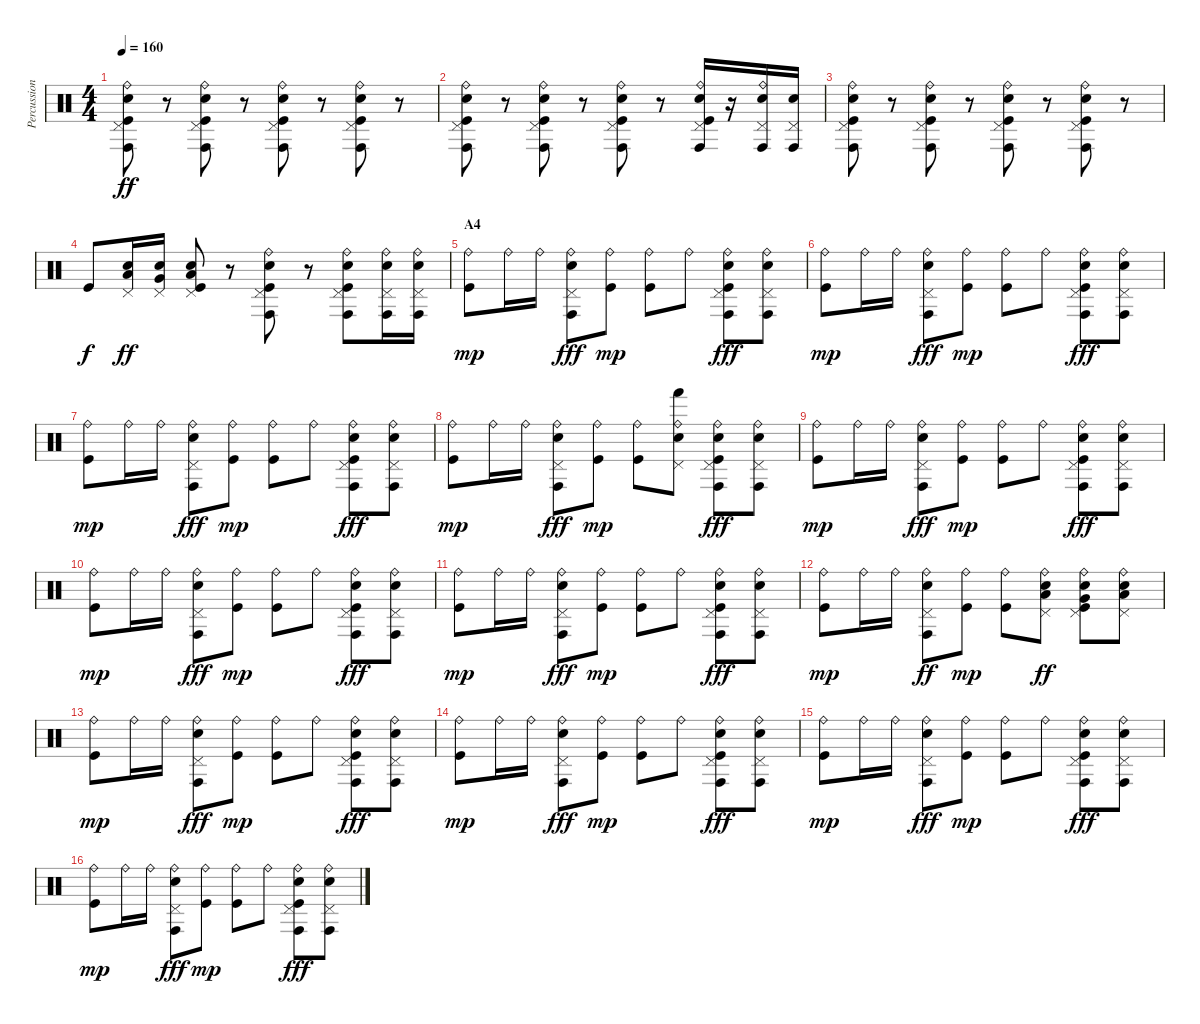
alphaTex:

\track ("Percussion" "Percussion") {instrument percussion}
\staff {score}
\articulation defaults
\ts (4 4)
\tempo 160
\clef neutral
\ks c
("Ride (bell)" "Pedal Hi-Hat (hit)" "Conga high (hit)" "Electric Snare (hit)" "Kick (hit)").8{dy ff} r.8 ("Ride (bell)" "Pedal Hi-Hat (hit)" "Conga high (hit)" "Electric Snare (hit)" "Kick (hit)").8 r.8 ("Ride (bell)" "Pedal Hi-Hat (hit)" "Conga high (hit)" "Electric Snare (hit)" "Kick (hit)").8 r.8 ("Ride (bell)" "Pedal Hi-Hat (hit)" "Conga high (hit)" "Electric Snare (hit)" "Kick (hit)").8 r.8 |
("Ride (bell)" "Pedal Hi-Hat (hit)" "Conga high (hit)" "Electric Snare (hit)" "Kick (hit)").8 r.8 ("Ride (bell)" "Pedal Hi-Hat (hit)" "Conga high (hit)" "Electric Snare (hit)" "Kick (hit)").8 r.8 ("Ride (bell)" "Pedal Hi-Hat (hit)" "Conga high (hit)" "Electric Snare (hit)" "Kick (hit)").8 r.8 ("Ride (bell)" "Pedal Hi-Hat (hit)" "Conga high (hit)" "Electric Snare (hit)" "Kick (hit)").16 r.16 ("Ride (bell)" "Pedal Hi-Hat (hit)" "Conga high (hit)" "Electric Snare (hit)").16 ("Pedal Hi-Hat (hit)" "Conga high (hit)" "Electric Snare (hit)").16 |
("Ride (bell)" "Pedal Hi-Hat (hit)" "Conga high (hit)" "Electric Snare (hit)" "Kick (hit)").8 r.8 ("Ride (bell)" "Pedal Hi-Hat (hit)" "Conga high (hit)" "Electric Snare (hit)" "Kick (hit)").8 r.8 ("Ride (bell)" "Pedal Hi-Hat (hit)" "Conga high (hit)" "Electric Snare (hit)" "Kick (hit)").8 r.8 ("Ride (bell)" "Pedal Hi-Hat (hit)" "Conga high (hit)" "Electric Snare (hit)" "Kick (hit)").8 r.8 |
"Kick (hit)".8{dy f} ("Pedal Hi-Hat (hit)" "Low Tom (hit)" "Electric Snare (hit)").16{dy ff} ("Pedal Hi-Hat (hit)" "Very Low Tom (hit)" "Electric Snare (hit)").16 ("Pedal Hi-Hat (hit)" "Low Floor Tom (hit)" "Electric Snare (hit)" "Kick (hit)").8 r.8 ("Ride (bell)" "Pedal Hi-Hat (hit)" "Conga high (hit)" "Electric Snare (hit)" "Kick (hit)").8 r.8 ("Ride (bell)" "Pedal Hi-Hat (hit)" "Conga high (hit)" "Electric Snare (hit)" "Kick (hit)").8 ("Ride (bell)" "Pedal Hi-Hat (hit)" "Conga high (hit)" "Electric Snare (hit)").16 ("Ride (bell)" "Pedal Hi-Hat (hit)" "Conga high (hit)" "Electric Snare (hit)").16 |
\section ("" "A4")
("Ride (bell)" "Kick (hit)").8{dy mp} "Ride (bell)".16 "Ride (bell)".16 ("Ride (bell)" "Pedal Hi-Hat (hit)" "Conga high (hit)" "Electric Snare (hit)").8{dy fff} ("Ride (bell)" "Kick (hit)").8{dy mp} ("Ride (bell)" "Kick (hit)").8 "Ride (bell)".8 ("Ride (bell)" "Pedal Hi-Hat (hit)" "Conga high (hit)" "Electric Snare (hit)" "Kick (hit)").8{dy fff} ("Ride (bell)" "Pedal Hi-Hat (hit)" "Conga high (hit)" "Electric Snare (hit)").8 |
("Ride (bell)" "Kick (hit)").8{dy mp} "Ride (bell)".16 "Ride (bell)".16 ("Ride (bell)" "Pedal Hi-Hat (hit)" "Conga high (hit)" "Electric Snare (hit)").8{dy fff} ("Ride (bell)" "Kick (hit)").8{dy mp} ("Ride (bell)" "Kick (hit)").8 "Ride (bell)".8 ("Ride (bell)" "Pedal Hi-Hat (hit)" "Conga high (hit)" "Electric Snare (hit)" "Kick (hit)").8{dy fff} ("Ride (bell)" "Pedal Hi-Hat (hit)" "Conga high (hit)" "Electric Snare (hit)").8 |
("Ride (bell)" "Kick (hit)").8{dy mp} "Ride (bell)".16 "Ride (bell)".16 ("Ride (bell)" "Pedal Hi-Hat (hit)" "Conga high (hit)" "Electric Snare (hit)").8{dy fff} ("Ride (bell)" "Kick (hit)").8{dy mp} ("Ride (bell)" "Kick (hit)").8 "Ride (bell)".8 ("Ride (bell)" "Pedal Hi-Hat (hit)" "Conga high (hit)" "Electric Snare (hit)" "Kick (hit)").8{dy fff} ("Ride (bell)" "Pedal Hi-Hat (hit)" "Conga high (hit)" "Electric Snare (hit)").8 |
("Ride (bell)" "Kick (hit)").8{dy mp} "Ride (bell)".16 "Ride (bell)".16 ("Ride (bell)" "Pedal Hi-Hat (hit)" "Conga high (hit)" "Electric Snare (hit)").8{dy fff} ("Ride (bell)" "Kick (hit)").8{dy mp} ("Ride (bell)" "Kick (hit)").8 ("Ride (bell)" "Pedal Hi-Hat (hit)" "Hand (hit)" "Electric Snare (hit)").8 ("Ride (bell)" "Pedal Hi-Hat (hit)" "Conga high (hit)" "Electric Snare (hit)" "Kick (hit)").8{dy fff} ("Ride (bell)" "Pedal Hi-Hat (hit)" "Conga high (hit)" "Electric Snare (hit)").8 |
("Ride (bell)" "Kick (hit)").8{dy mp} "Ride (bell)".16 "Ride (bell)".16 ("Ride (bell)" "Pedal Hi-Hat (hit)" "Conga high (hit)" "Electric Snare (hit)").8{dy fff} ("Ride (bell)" "Kick (hit)").8{dy mp} ("Ride (bell)" "Kick (hit)").8 "Ride (bell)".8 ("Ride (bell)" "Pedal Hi-Hat (hit)" "Conga high (hit)" "Electric Snare (hit)" "Kick (hit)").8{dy fff} ("Ride (bell)" "Pedal Hi-Hat (hit)" "Conga high (hit)" "Electric Snare (hit)").8 |
("Ride (bell)" "Kick (hit)").8{dy mp} "Ride (bell)".16 "Ride (bell)".16 ("Ride (bell)" "Pedal Hi-Hat (hit)" "Conga high (hit)" "Electric Snare (hit)").8{dy fff} ("Ride (bell)" "Kick (hit)").8{dy mp} ("Ride (bell)" "Kick (hit)").8 "Ride (bell)".8 ("Ride (bell)" "Pedal Hi-Hat (hit)" "Conga high (hit)" "Electric Snare (hit)" "Kick (hit)").8{dy fff} ("Ride (bell)" "Pedal Hi-Hat (hit)" "Conga high (hit)" "Electric Snare (hit)").8 |
("Ride (bell)" "Kick (hit)").8{dy mp} "Ride (bell)".16 "Ride (bell)".16 ("Ride (bell)" "Pedal Hi-Hat (hit)" "Conga high (hit)" "Electric Snare (hit)").8{dy fff} ("Ride (bell)" "Kick (hit)").8{dy mp} ("Ride (bell)" "Kick (hit)").8 "Ride (bell)".8 ("Ride (bell)" "Pedal Hi-Hat (hit)" "Conga high (hit)" "Electric Snare (hit)" "Kick (hit)").8{dy fff} ("Ride (bell)" "Pedal Hi-Hat (hit)" "Conga high (hit)" "Electric Snare (hit)").8 |
("Ride (bell)" "Kick (hit)").8{dy mp} "Ride (bell)".16 "Ride (bell)".16 ("Ride (bell)" "Pedal Hi-Hat (hit)" "Conga high (hit)" "Electric Snare (hit)").8{dy ff} ("Ride (bell)" "Kick (hit)").8{dy mp} ("Ride (bell)" "Kick (hit)").8 ("Ride (bell)" "Pedal Hi-Hat (hit)" "Low Tom (hit)" "Electric Snare (hit)").8{dy ff} ("Ride (bell)" "Pedal Hi-Hat (hit)" "Very Low Tom (hit)" "Electric Snare (hit)" "Kick (hit)").8 ("Ride (bell)" "Pedal Hi-Hat (hit)" "Low Floor Tom (hit)" "Electric Snare (hit)").8 |
("Ride (bell)" "Kick (hit)").8{dy mp} "Ride (bell)".16 "Ride (bell)".16 ("Ride (bell)" "Pedal Hi-Hat (hit)" "Conga high (hit)" "Electric Snare (hit)").8{dy fff} ("Ride (bell)" "Kick (hit)").8{dy mp} ("Ride (bell)" "Kick (hit)").8 "Ride (bell)".8 ("Ride (bell)" "Pedal Hi-Hat (hit)" "Conga high (hit)" "Electric Snare (hit)" "Kick (hit)").8{dy fff} ("Ride (bell)" "Pedal Hi-Hat (hit)" "Conga high (hit)" "Electric Snare (hit)").8 |
("Ride (bell)" "Kick (hit)").8{dy mp} "Ride (bell)".16 "Ride (bell)".16 ("Ride (bell)" "Pedal Hi-Hat (hit)" "Conga high (hit)" "Electric Snare (hit)").8{dy fff} ("Ride (bell)" "Kick (hit)").8{dy mp} ("Ride (bell)" "Kick (hit)").8 "Ride (bell)".8 ("Ride (bell)" "Pedal Hi-Hat (hit)" "Conga high (hit)" "Electric Snare (hit)" "Kick (hit)").8{dy fff} ("Ride (bell)" "Pedal Hi-Hat (hit)" "Conga high (hit)" "Electric Snare (hit)").8 |
("Ride (bell)" "Kick (hit)").8{dy mp} "Ride (bell)".16 "Ride (bell)".16 ("Ride (bell)" "Pedal Hi-Hat (hit)" "Conga high (hit)" "Electric Snare (hit)").8{dy fff} ("Ride (bell)" "Kick (hit)").8{dy mp} ("Ride (bell)" "Kick (hit)").8 "Ride (bell)".8 ("Ride (bell)" "Pedal Hi-Hat (hit)" "Conga high (hit)" "Electric Snare (hit)" "Kick (hit)").8{dy fff} ("Ride (bell)" "Pedal Hi-Hat (hit)" "Conga high (hit)" "Electric Snare (hit)").8 |
("Ride (bell)" "Kick (hit)").8{dy mp} "Ride (bell)".16 "Ride (bell)".16 ("Ride (bell)" "Pedal Hi-Hat (hit)" "Conga high (hit)" "Electric Snare (hit)").8{dy fff} ("Ride (bell)" "Kick (hit)").8{dy mp} ("Ride (bell)" "Kick (hit)").8 "Ride (bell)".8 ("Ride (bell)" "Pedal Hi-Hat (hit)" "Conga high (hit)" "Electric Snare (hit)" "Kick (hit)").8{dy fff} ("Ride (bell)" "Pedal Hi-Hat (hit)" "Conga high (hit)" "Electric Snare (hit)").8
